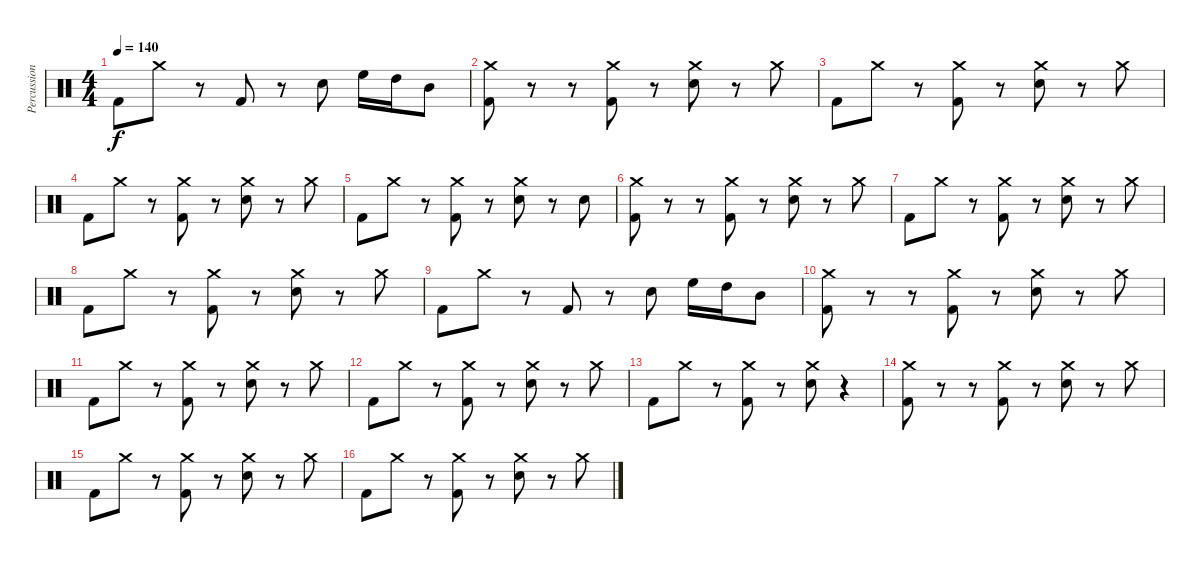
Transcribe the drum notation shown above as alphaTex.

\track ("Percussion" "Percussion") {instrument percussion}
\staff {score}
\articulation defaults
\ts (4 4)
\tempo 140
\clef neutral
\ks c "Kick (hit) 2".8{dy f} "Crash medium (hit)".8
r.8 "Kick (hit) 2".8 r.8 "Electric Snare (hit)".8 "High Floor Tom (hit)".16 "High Tom (hit)".16 "Mid Tom (hit)".8 |
("Crash medium (hit)" "Kick (hit) 2").8{volume 16} r.8 r.8 ("Crash medium (hit)" "Kick (hit) 2").8 r.8 ("Crash medium (hit)" "Electric Snare (hit)").8 r.8 "Crash medium (hit)".8 |
"Kick (hit) 2".8 "Crash medium (hit)".8 r.8 ("Crash medium (hit)" "Kick (hit) 2").8 r.8 ("Crash medium (hit)" "Electric Snare (hit)").8 r.8 "Crash medium (hit)".8 |
"Kick (hit) 2".8 "Crash medium (hit)".8 r.8 ("Crash medium (hit)" "Kick (hit) 2").8 r.8 ("Crash medium (hit)" "Electric Snare (hit)").8 r.8 "Crash medium (hit)".8 |
"Kick (hit) 2".8 "Crash medium (hit)".8 r.8 ("Crash medium (hit)" "Kick (hit) 2").8 r.8 ("Crash medium (hit)" "Electric Snare (hit)").8 r.8 "Electric Snare (hit)".8 |
("Crash medium (hit)" "Kick (hit) 2").8 r.8 r.8 ("Crash medium (hit)" "Kick (hit) 2").8 r.8 ("Crash medium (hit)" "Electric Snare (hit)").8 r.8 "Crash medium (hit)".8 |
"Kick (hit) 2".8 "Crash medium (hit)".8 r.8 ("Crash medium (hit)" "Kick (hit) 2").8 r.8 ("Crash medium (hit)" "Electric Snare (hit)").8 r.8 "Crash medium (hit)".8 |
"Kick (hit) 2".8 "Crash medium (hit)".8 r.8 ("Crash medium (hit)" "Kick (hit) 2").8 r.8 ("Crash medium (hit)" "Electric Snare (hit)").8 r.8 "Crash medium (hit)".8 |
"Kick (hit) 2".8 "Crash medium (hit)".8 r.8 "Kick (hit) 2".8 r.8 "Electric Snare (hit)".8 "High Floor Tom (hit)".16 "High Tom (hit)".16 "Mid Tom (hit)".8 |
("Crash medium (hit)" "Kick (hit) 2").8{volume 16} r.8 r.8 ("Crash medium (hit)" "Kick (hit) 2").8 r.8 ("Crash medium (hit)" "Electric Snare (hit)").8 r.8 "Crash medium (hit)".8 |
"Kick (hit) 2".8 "Crash medium (hit)".8 r.8 ("Crash medium (hit)" "Kick (hit) 2").8 r.8 ("Crash medium (hit)" "Electric Snare (hit)").8 r.8 "Crash medium (hit)".8 |
"Kick (hit) 2".8 "Crash medium (hit)".8 r.8 ("Crash medium (hit)" "Kick (hit) 2").8 r.8 ("Crash medium (hit)" "Electric Snare (hit)").8 r.8 "Crash medium (hit)".8 |
"Kick (hit) 2".8 "Crash medium (hit)".8 r.8 ("Crash medium (hit)" "Kick (hit) 2").8 r.8 ("Crash medium (hit)" "Electric Snare (hit)").8 r.4 |
("Crash medium (hit)" "Kick (hit) 2").8 r.8 r.8 ("Crash medium (hit)" "Kick (hit) 2").8 r.8 ("Crash medium (hit)" "Electric Snare (hit)").8 r.8 "Crash medium (hit)".8 |
"Kick (hit) 2".8 "Crash medium (hit)".8 r.8 ("Crash medium (hit)" "Kick (hit) 2").8 r.8 ("Crash medium (hit)" "Electric Snare (hit)").8 r.8 "Crash medium (hit)".8 |
"Kick (hit) 2".8 "Crash medium (hit)".8 r.8 ("Crash medium (hit)" "Kick (hit) 2").8 r.8 ("Crash medium (hit)" "Electric Snare (hit)").8 r.8 "Crash medium (hit)".8
